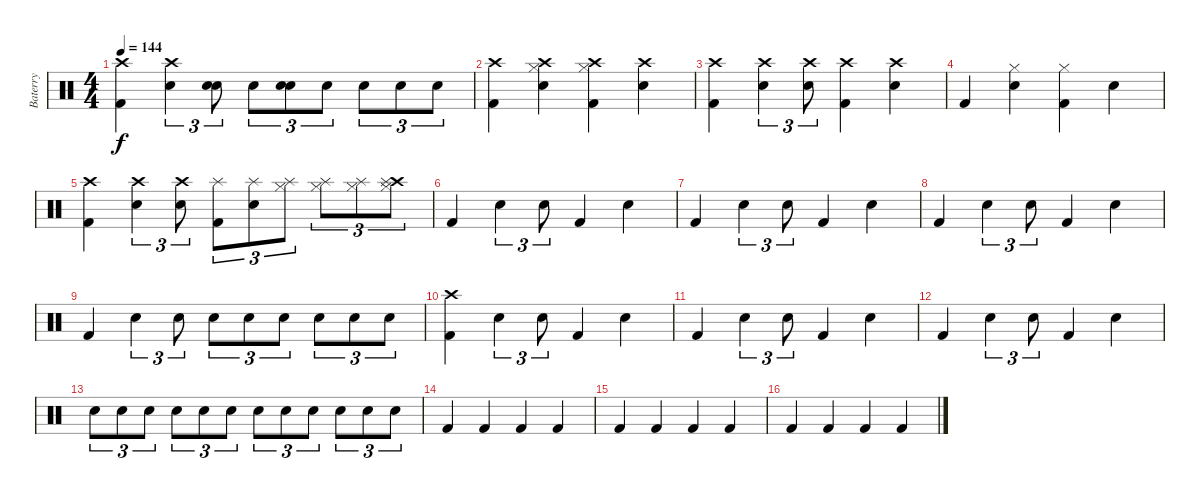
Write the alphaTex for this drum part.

\track ("Baterry" "Baterry") {instrument percussion}
\staff {score}
\articulation defaults
\ts (4 4)
\tempo 144
\clef neutral
\ks c
("Kick (hit) 2" "Crash high (hit)").4{dy f} ("Electric Snare (hit)" "Crash high (hit)").4{tu (3 2)} ("Electric Snare (hit)" "Electric Snare (hit)").8{tu (3 2)} "Electric Snare (hit)".8{tu (3 2)} ("Electric Snare (hit)" "Electric Snare (hit)").8{tu (3 2)} "Electric Snare (hit)".8{tu (3 2)} "Electric Snare (hit)".8{tu (3 2)} "Electric Snare (hit)".8{tu (3 2)} "Electric Snare (hit)".8{tu (3 2)} |
("Crash high (hit)" "Kick (hit) 2").4 ("Hi-Hat (closed)" "Crash high (hit)" "Electric Snare (hit)").4 ("Hi-Hat (closed)" "Crash high (hit)" "Kick (hit) 2").4 ("Crash high (hit)" "Electric Snare (hit)").4 |
("Kick (hit) 2" "Crash high (hit)").4 ("Electric Snare (hit)" "Crash high (hit)").4{tu (3 2)} ("Electric Snare (hit)" "Crash high (hit)").8{tu (3 2)} ("Kick (hit) 2" "Crash high (hit)").4 ("Electric Snare (hit)" "Crash high (hit)").4 |
"Kick (hit) 2".4 ("Hi-Hat (closed)" "Electric Snare (hit)").4 ("Hi-Hat (closed)" "Kick (hit) 2").4 "Electric Snare (hit)".4 |
("Kick (hit) 2" "Crash high (hit)").4 ("Electric Snare (hit)" "Crash high (hit)").4{tu (3 2)} ("Electric Snare (hit)" "Crash high (hit)").8{tu (3 2)} ("Kick (hit) 2" "Splash (hit)").8{tu (3 2)} ("Electric Snare (hit)" "Splash (hit)").8{tu (3 2)} ("Hi-Hat (closed)" "Splash (hit)").8{tu (3 2)} ("Hi-Hat (closed)" "Splash (hit)").8{tu (3 2)} ("Hi-Hat (closed)" "Splash (hit)").8{tu (3 2)} ("Crash high (hit)" "Hi-Hat (closed)" "Splash (hit)").8{tu (3 2)} |
"Kick (hit) 2".4 "Electric Snare (hit)".4{tu (3 2)} "Electric Snare (hit)".8{tu (3 2)} "Kick (hit) 2".4 "Electric Snare (hit)".4 |
"Kick (hit) 2".4 "Electric Snare (hit)".4{tu (3 2)} "Electric Snare (hit)".8{tu (3 2)} "Kick (hit) 2".4 "Electric Snare (hit)".4 |
"Kick (hit) 2".4 "Electric Snare (hit)".4{tu (3 2)} "Electric Snare (hit)".8{tu (3 2)} "Kick (hit) 2".4 "Electric Snare (hit)".4 |
"Kick (hit) 2".4 "Electric Snare (hit)".4{tu (3 2)} "Electric Snare (hit)".8{tu (3 2)} "Electric Snare (hit)".8{tu (3 2)} "Electric Snare (hit)".8{tu (3 2)} "Electric Snare (hit)".8{tu (3 2)} "Electric Snare (hit)".8{tu (3 2)} "Electric Snare (hit)".8{tu (3 2)} "Electric Snare (hit)".8{tu (3 2)} |
("Crash high (hit)" "Kick (hit) 2").4 "Electric Snare (hit)".4{tu (3 2)} "Electric Snare (hit)".8{tu (3 2)} "Kick (hit) 2".4 "Electric Snare (hit)".4 |
"Kick (hit) 2".4 "Electric Snare (hit)".4{tu (3 2)} "Electric Snare (hit)".8{tu (3 2)} "Kick (hit) 2".4 "Electric Snare (hit)".4 |
"Kick (hit) 2".4 "Electric Snare (hit)".4{tu (3 2)} "Electric Snare (hit)".8{tu (3 2)} "Kick (hit) 2".4 "Electric Snare (hit)".4 |
"Electric Snare (hit)".8{tu (3 2)} "Electric Snare (hit)".8{tu (3 2)} "Electric Snare (hit)".8{tu (3 2)} "Electric Snare (hit)".8{tu (3 2)} "Electric Snare (hit)".8{tu (3 2)} "Electric Snare (hit)".8{tu (3 2)} "Electric Snare (hit)".8{tu (3 2)} "Electric Snare (hit)".8{tu (3 2)} "Electric Snare (hit)".8{tu (3 2)} "Electric Snare (hit)".8{tu (3 2)} "Electric Snare (hit)".8{tu (3 2)} "Electric Snare (hit)".8{tu (3 2)} |
"Kick (hit) 2".4 "Kick (hit) 2".4 "Kick (hit) 2".4 "Kick (hit) 2".4 |
"Kick (hit) 2".4 "Kick (hit) 2".4 "Kick (hit) 2".4 "Kick (hit) 2".4 |
"Kick (hit) 2".4 "Kick (hit) 2".4 "Kick (hit) 2".4 "Kick (hit) 2".4
